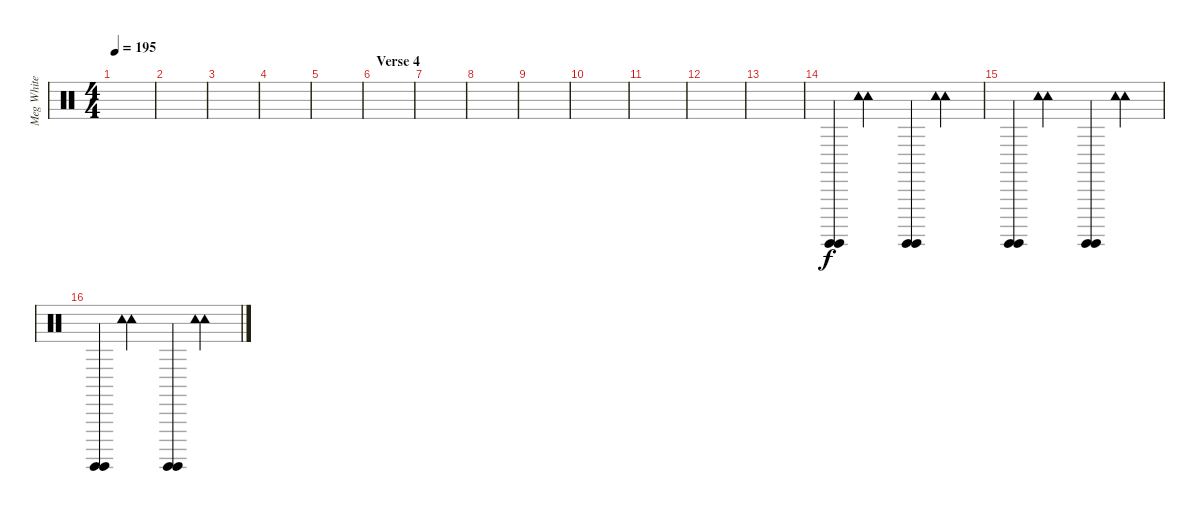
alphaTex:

\track ("Meg White" "Meg White") {instrument percussion}
\staff {score}
\articulation defaults
\ts (4 4)
\tempo 195
\clef neutral
\ks c
|
|
|
|
|
\section ("" "Verse 4")
|
|
|
|
|
|
|
|
("Surdo (hit)" "Surdo (hit)").4{dy f} ("Tambourine (hit)" "Tambourine (hit)").4 ("Surdo (hit)" "Surdo (hit)").4 ("Tambourine (hit)" "Tambourine (hit)").4 |
("Surdo (hit)" "Surdo (hit)").4 ("Tambourine (hit)" "Tambourine (hit)").4 ("Surdo (hit)" "Surdo (hit)").4 ("Tambourine (hit)" "Tambourine (hit)").4 |
("Surdo (hit)" "Surdo (hit)").4 ("Tambourine (hit)" "Tambourine (hit)").4 ("Surdo (hit)" "Surdo (hit)").4 ("Tambourine (hit)" "Tambourine (hit)").4
